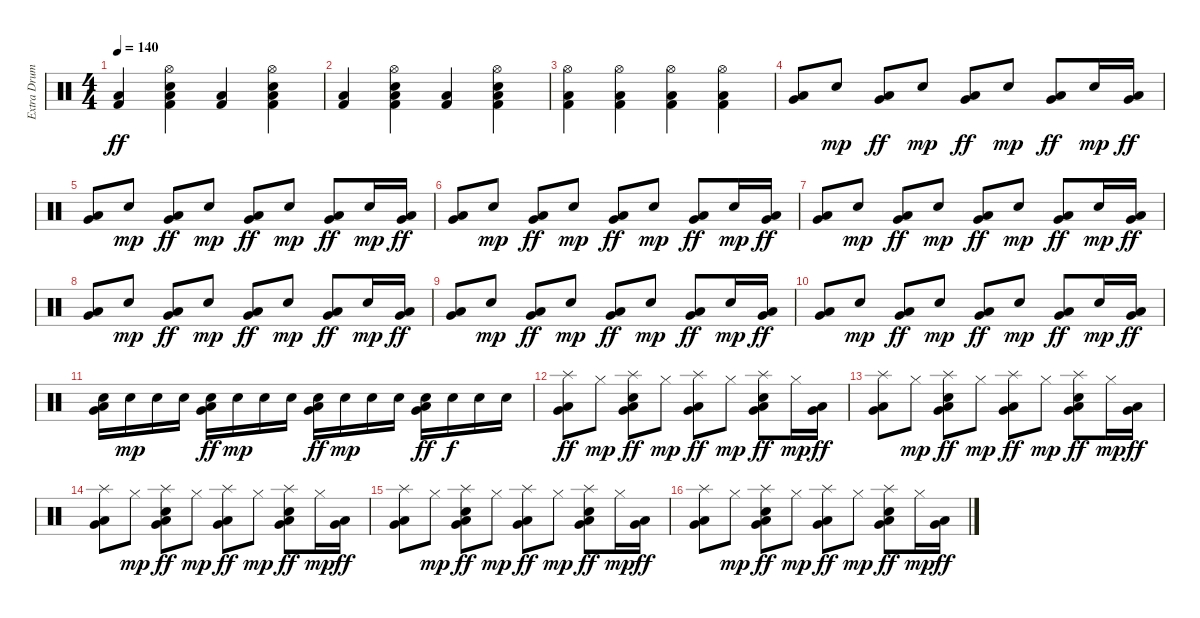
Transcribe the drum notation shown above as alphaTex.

\track ("Extra Drums" "Extra Drum") {instrument percussion}
\staff {score}
\articulation defaults
\ts (4 4)
\tempo 140
\clef neutral
\ks c
("Low Floor Tom (hit)" "Kick (hit) 2").4{dy ff} ("Hi-Hat (open)" "Electric Snare (hit)" "Low Floor Tom (hit)" "Kick (hit) 2").4 ("Low Floor Tom (hit)" "Kick (hit) 2").4 ("Hi-Hat (open)" "Electric Snare (hit)" "Low Floor Tom (hit)" "Kick (hit) 2").4 |
("Low Floor Tom (hit)" "Kick (hit) 2").4 ("Hi-Hat (open)" "Electric Snare (hit)" "Low Floor Tom (hit)" "Kick (hit) 2").4 ("Low Floor Tom (hit)" "Kick (hit) 2").4 ("Hi-Hat (open)" "Electric Snare (hit)" "Low Floor Tom (hit)" "Kick (hit) 2").4 |
("Hi-Hat (open)" "Low Floor Tom (hit)" "Kick (hit) 2").4 ("Hi-Hat (open)" "Low Floor Tom (hit)" "Kick (hit) 2").4 ("Hi-Hat (open)" "Low Floor Tom (hit)" "Kick (hit) 2").4 ("Hi-Hat (open)" "Low Floor Tom (hit)" "Kick (hit) 2").4 |
("Low Floor Tom (hit)" "Very Low Tom (hit)").8 "Snare (hit) 2".8{dy mp} ("Low Floor Tom (hit)" "Very Low Tom (hit)").8{dy ff} "Snare (hit) 2".8{dy mp} ("Low Floor Tom (hit)" "Very Low Tom (hit)").8{dy ff} "Snare (hit) 2".8{dy mp} ("Low Floor Tom (hit)" "Very Low Tom (hit)").8{dy ff} "Snare (hit) 2".16{dy mp} ("Low Floor Tom (hit)" "Very Low Tom (hit)").16{dy ff} |
("Low Floor Tom (hit)" "Very Low Tom (hit)").8 "Snare (hit) 2".8{dy mp} ("Low Floor Tom (hit)" "Very Low Tom (hit)").8{dy ff} "Snare (hit) 2".8{dy mp} ("Low Floor Tom (hit)" "Very Low Tom (hit)").8{dy ff} "Snare (hit) 2".8{dy mp} ("Low Floor Tom (hit)" "Very Low Tom (hit)").8{dy ff} "Snare (hit) 2".16{dy mp} ("Low Floor Tom (hit)" "Very Low Tom (hit)").16{dy ff} |
("Low Floor Tom (hit)" "Very Low Tom (hit)").8 "Snare (hit) 2".8{dy mp} ("Low Floor Tom (hit)" "Very Low Tom (hit)").8{dy ff} "Snare (hit) 2".8{dy mp} ("Low Floor Tom (hit)" "Very Low Tom (hit)").8{dy ff} "Snare (hit) 2".8{dy mp} ("Low Floor Tom (hit)" "Very Low Tom (hit)").8{dy ff} "Snare (hit) 2".16{dy mp} ("Low Floor Tom (hit)" "Very Low Tom (hit)").16{dy ff} |
("Low Floor Tom (hit)" "Very Low Tom (hit)").8 "Snare (hit) 2".8{dy mp} ("Low Floor Tom (hit)" "Very Low Tom (hit)").8{dy ff} "Snare (hit) 2".8{dy mp} ("Low Floor Tom (hit)" "Very Low Tom (hit)").8{dy ff} "Snare (hit) 2".8{dy mp} ("Low Floor Tom (hit)" "Very Low Tom (hit)").8{dy ff} "Snare (hit) 2".16{dy mp} ("Low Floor Tom (hit)" "Very Low Tom (hit)").16{dy ff} |
("Low Floor Tom (hit)" "Very Low Tom (hit)").8 "Snare (hit) 2".8{dy mp} ("Low Floor Tom (hit)" "Very Low Tom (hit)").8{dy ff} "Snare (hit) 2".8{dy mp} ("Low Floor Tom (hit)" "Very Low Tom (hit)").8{dy ff} "Snare (hit) 2".8{dy mp} ("Low Floor Tom (hit)" "Very Low Tom (hit)").8{dy ff} "Snare (hit) 2".16{dy mp} ("Low Floor Tom (hit)" "Very Low Tom (hit)").16{dy ff} |
("Low Floor Tom (hit)" "Very Low Tom (hit)").8 "Snare (hit) 2".8{dy mp} ("Low Floor Tom (hit)" "Very Low Tom (hit)").8{dy ff} "Snare (hit) 2".8{dy mp} ("Low Floor Tom (hit)" "Very Low Tom (hit)").8{dy ff} "Snare (hit) 2".8{dy mp} ("Low Floor Tom (hit)" "Very Low Tom (hit)").8{dy ff} "Snare (hit) 2".16{dy mp} ("Low Floor Tom (hit)" "Very Low Tom (hit)").16{dy ff} |
("Low Floor Tom (hit)" "Very Low Tom (hit)").8 "Snare (hit) 2".8{dy mp} ("Low Floor Tom (hit)" "Very Low Tom (hit)").8{dy ff} "Snare (hit) 2".8{dy mp} ("Low Floor Tom (hit)" "Very Low Tom (hit)").8{dy ff} "Snare (hit) 2".8{dy mp} ("Low Floor Tom (hit)" "Very Low Tom (hit)").8{dy ff} "Snare (hit) 2".16{dy mp} ("Low Floor Tom (hit)" "Very Low Tom (hit)").16{dy ff} |
("Snare (hit) 2" "Low Floor Tom (hit)" "Very Low Tom (hit)").16 "Snare (hit) 2".16{dy mp} "Snare (hit) 2".16 "Snare (hit) 2".16 ("Snare (hit) 2" "Low Floor Tom (hit)" "Very Low Tom (hit)").16{dy ff} "Snare (hit) 2".16{dy mp} "Snare (hit) 2".16 "Snare (hit) 2".16 ("Snare (hit) 2" "Low Floor Tom (hit)" "Very Low Tom (hit)").16{dy ff} "Snare (hit) 2".16{dy mp} "Snare (hit) 2".16 "Snare (hit) 2".16 ("Snare (hit) 2" "Low Floor Tom (hit)" "Very Low Tom (hit)").16{dy ff} "Snare (hit) 2".16{dy f} "Snare (hit) 2".16 "Snare (hit) 2".16 |
("Splash (hit)" "Low Floor Tom (hit)" "Very Low Tom (hit)").8{dy ff} "Hi-Hat (closed)".8{dy mp} ("Splash (hit)" "Electric Snare (hit)" "Low Floor Tom (hit)" "Very Low Tom (hit)").8{dy ff} "Hi-Hat (closed)".8{dy mp} ("Splash (hit)" "Low Floor Tom (hit)" "Very Low Tom (hit)").8{dy ff} "Hi-Hat (closed)".8{dy mp} ("Splash (hit)" "Electric Snare (hit)" "Low Floor Tom (hit)" "Very Low Tom (hit)").8{dy ff} "Hi-Hat (closed)".16{dy mp} ("Low Floor Tom (hit)" "Very Low Tom (hit)").16{dy ff} |
("Splash (hit)" "Low Floor Tom (hit)" "Very Low Tom (hit)").8 "Hi-Hat (closed)".8{dy mp} ("Splash (hit)" "Electric Snare (hit)" "Low Floor Tom (hit)" "Very Low Tom (hit)").8{dy ff} "Hi-Hat (closed)".8{dy mp} ("Splash (hit)" "Low Floor Tom (hit)" "Very Low Tom (hit)").8{dy ff} "Hi-Hat (closed)".8{dy mp} ("Splash (hit)" "Electric Snare (hit)" "Low Floor Tom (hit)" "Very Low Tom (hit)").8{dy ff} "Hi-Hat (closed)".16{dy mp} ("Low Floor Tom (hit)" "Very Low Tom (hit)").16{dy ff} |
("Splash (hit)" "Low Floor Tom (hit)" "Very Low Tom (hit)").8 "Hi-Hat (closed)".8{dy mp} ("Splash (hit)" "Electric Snare (hit)" "Low Floor Tom (hit)" "Very Low Tom (hit)").8{dy ff} "Hi-Hat (closed)".8{dy mp} ("Splash (hit)" "Low Floor Tom (hit)" "Very Low Tom (hit)").8{dy ff} "Hi-Hat (closed)".8{dy mp} ("Splash (hit)" "Electric Snare (hit)" "Low Floor Tom (hit)" "Very Low Tom (hit)").8{dy ff} "Hi-Hat (closed)".16{dy mp} ("Low Floor Tom (hit)" "Very Low Tom (hit)").16{dy ff} |
("Splash (hit)" "Low Floor Tom (hit)" "Very Low Tom (hit)").8 "Hi-Hat (closed)".8{dy mp} ("Splash (hit)" "Electric Snare (hit)" "Low Floor Tom (hit)" "Very Low Tom (hit)").8{dy ff} "Hi-Hat (closed)".8{dy mp} ("Splash (hit)" "Low Floor Tom (hit)" "Very Low Tom (hit)").8{dy ff} "Hi-Hat (closed)".8{dy mp} ("Splash (hit)" "Electric Snare (hit)" "Low Floor Tom (hit)" "Very Low Tom (hit)").8{dy ff} "Hi-Hat (closed)".16{dy mp} ("Low Floor Tom (hit)" "Very Low Tom (hit)").16{dy ff} |
("Splash (hit)" "Low Floor Tom (hit)" "Very Low Tom (hit)").8 "Hi-Hat (closed)".8{dy mp} ("Splash (hit)" "Electric Snare (hit)" "Low Floor Tom (hit)" "Very Low Tom (hit)").8{dy ff} "Hi-Hat (closed)".8{dy mp} ("Splash (hit)" "Low Floor Tom (hit)" "Very Low Tom (hit)").8{dy ff} "Hi-Hat (closed)".8{dy mp} ("Splash (hit)" "Electric Snare (hit)" "Low Floor Tom (hit)" "Very Low Tom (hit)").8{dy ff} "Hi-Hat (closed)".16{dy mp} ("Low Floor Tom (hit)" "Very Low Tom (hit)").16{dy ff}
